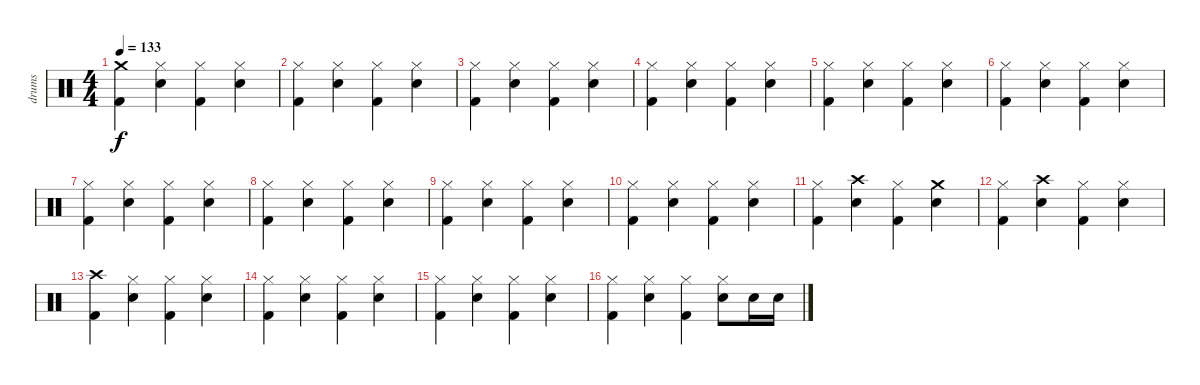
\track ("drums" "drums") {instrument percussion}
\staff {score}
\articulation defaults
\ts (4 4)
\tempo 133
\clef neutral
\ks c
("Crash medium (hit)" "Kick (hit) 2").4{dy f} ("Hi-Hat (closed)" "Snare (hit) 2").4 ("Hi-Hat (closed)" "Kick (hit) 2").4 ("Hi-Hat (closed)" "Snare (hit) 2").4 |
("Hi-Hat (closed)" "Kick (hit) 2").4 ("Hi-Hat (closed)" "Snare (hit) 2").4 ("Hi-Hat (closed)" "Kick (hit) 2").4 ("Hi-Hat (closed)" "Snare (hit) 2").4 |
("Hi-Hat (closed)" "Kick (hit) 2").4 ("Hi-Hat (closed)" "Snare (hit) 2").4 ("Hi-Hat (closed)" "Kick (hit) 2").4 ("Hi-Hat (closed)" "Snare (hit) 2").4 |
("Hi-Hat (closed)" "Kick (hit) 2").4 ("Hi-Hat (closed)" "Snare (hit) 2").4 ("Hi-Hat (closed)" "Kick (hit) 2").4 ("Hi-Hat (closed)" "Snare (hit) 2").4 |
("Hi-Hat (closed)" "Kick (hit) 2").4 ("Hi-Hat (closed)" "Snare (hit) 2").4 ("Hi-Hat (closed)" "Kick (hit) 2").4 ("Hi-Hat (closed)" "Snare (hit) 2").4 |
("Hi-Hat (closed)" "Kick (hit) 2").4 ("Hi-Hat (closed)" "Snare (hit) 2").4 ("Hi-Hat (closed)" "Kick (hit) 2").4 ("Hi-Hat (closed)" "Snare (hit) 2").4 |
("Hi-Hat (closed)" "Kick (hit) 2").4 ("Hi-Hat (closed)" "Snare (hit) 2").4 ("Hi-Hat (closed)" "Kick (hit) 2").4 ("Hi-Hat (closed)" "Snare (hit) 2").4 |
("Hi-Hat (closed)" "Kick (hit) 2").4 ("Hi-Hat (closed)" "Snare (hit) 2").4 ("Hi-Hat (closed)" "Kick (hit) 2").4 ("Hi-Hat (closed)" "Snare (hit) 2").4 |
("Hi-Hat (closed)" "Kick (hit) 2").4 ("Hi-Hat (closed)" "Snare (hit) 2").4 ("Hi-Hat (closed)" "Kick (hit) 2").4 ("Hi-Hat (closed)" "Snare (hit) 2").4 |
("Hi-Hat (closed)" "Kick (hit) 2").4 ("Hi-Hat (closed)" "Snare (hit) 2").4 ("Hi-Hat (closed)" "Kick (hit) 2").4 ("Hi-Hat (closed)" "Snare (hit) 2").4 |
("Hi-Hat (closed)" "Kick (hit) 2").4 ("Crash high (hit)" "Snare (hit) 2").4 ("Hi-Hat (closed)" "Kick (hit) 2").4 ("Crash medium (hit)" "Snare (hit) 2").4 |
("Hi-Hat (closed)" "Kick (hit) 2").4 ("Crash high (hit)" "Snare (hit) 2").4 ("Hi-Hat (closed)" "Kick (hit) 2").4 ("Hi-Hat (closed)" "Snare (hit) 2").4 |
("Crash high (hit)" "Kick (hit) 2").4 ("Hi-Hat (closed)" "Snare (hit) 2").4 ("Hi-Hat (closed)" "Kick (hit) 2").4 ("Hi-Hat (closed)" "Snare (hit) 2").4 |
("Hi-Hat (closed)" "Kick (hit) 2").4 ("Hi-Hat (closed)" "Snare (hit) 2").4 ("Hi-Hat (closed)" "Kick (hit) 2").4 ("Hi-Hat (closed)" "Snare (hit) 2").4 |
("Hi-Hat (closed)" "Kick (hit) 2").4 ("Hi-Hat (closed)" "Snare (hit) 2").4 ("Hi-Hat (closed)" "Kick (hit) 2").4 ("Hi-Hat (closed)" "Snare (hit) 2").4 |
("Hi-Hat (closed)" "Kick (hit) 2").4 ("Hi-Hat (closed)" "Snare (hit) 2").4 ("Hi-Hat (closed)" "Kick (hit) 2").4 ("Hi-Hat (closed)" "Snare (hit) 2").8 "Snare (hit) 2".16 "Snare (hit) 2".16
